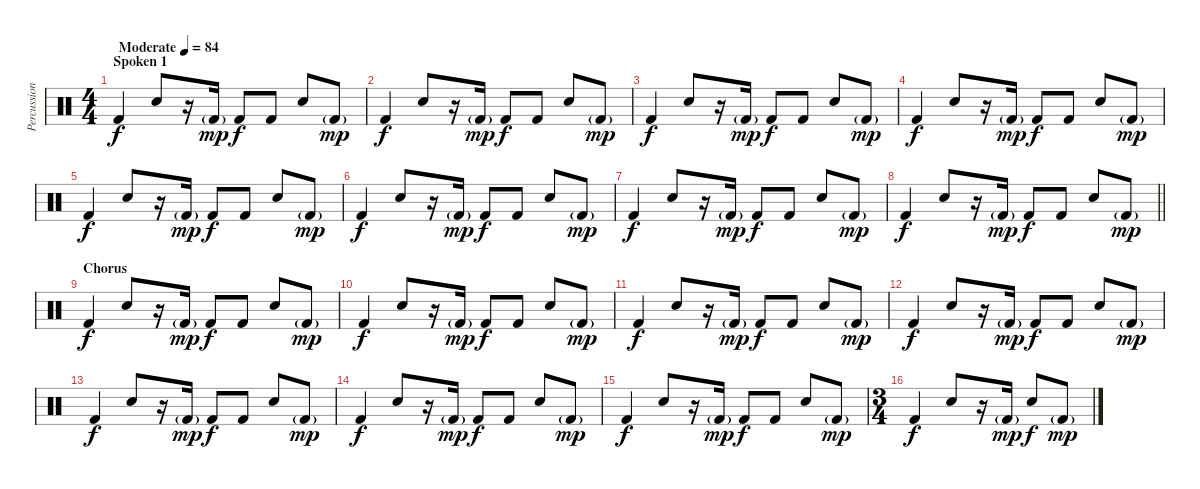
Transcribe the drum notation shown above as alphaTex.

\track ("Percussion" "Percussion") {instrument percussion}
\staff {score}
\articulation defaults
\ts (4 4)
\section ("" "Spoken 1")
\tempo (84 "Moderate")
\clef neutral
\ks c "Kick (hit) 2".4{dy f} "Snare (hit) 2".8
r.16 "Kick (hit) 2"{g}.16{dy mp} "Kick (hit) 2".8{dy f} "Kick (hit) 2".8 "Snare (hit) 2".8 "Kick (hit) 2"{g}.8{dy mp} |
"Kick (hit) 2".4{dy f} "Snare (hit) 2".8 r.16 "Kick (hit) 2"{g}.16{dy mp} "Kick (hit) 2".8{dy f} "Kick (hit) 2".8 "Snare (hit) 2".8 "Kick (hit) 2"{g}.8{dy mp} |
"Kick (hit) 2".4{dy f} "Snare (hit) 2".8 r.16 "Kick (hit) 2"{g}.16{dy mp} "Kick (hit) 2".8{dy f} "Kick (hit) 2".8 "Snare (hit) 2".8 "Kick (hit) 2"{g}.8{dy mp} |
"Kick (hit) 2".4{dy f} "Snare (hit) 2".8 r.16 "Kick (hit) 2"{g}.16{dy mp} "Kick (hit) 2".8{dy f} "Kick (hit) 2".8 "Snare (hit) 2".8 "Kick (hit) 2"{g}.8{dy mp} |
"Kick (hit) 2".4{dy f} "Snare (hit) 2".8 r.16 "Kick (hit) 2"{g}.16{dy mp} "Kick (hit) 2".8{dy f} "Kick (hit) 2".8 "Snare (hit) 2".8 "Kick (hit) 2"{g}.8{dy mp} |
"Kick (hit) 2".4{dy f} "Snare (hit) 2".8 r.16 "Kick (hit) 2"{g}.16{dy mp} "Kick (hit) 2".8{dy f} "Kick (hit) 2".8 "Snare (hit) 2".8 "Kick (hit) 2"{g}.8{dy mp} |
"Kick (hit) 2".4{dy f} "Snare (hit) 2".8 r.16 "Kick (hit) 2"{g}.16{dy mp} "Kick (hit) 2".8{dy f} "Kick (hit) 2".8 "Snare (hit) 2".8 "Kick (hit) 2"{g}.8{dy mp} |
\barLineRight lightlight "Kick (hit) 2".4{dy f} "Snare (hit) 2".8
r.16 "Kick (hit) 2"{g}.16{dy mp} "Kick (hit) 2".8{dy f} "Kick (hit) 2".8 "Snare (hit) 2".8 "Kick (hit) 2"{g}.8{dy mp} |
\section ("" "Chorus")
"Kick (hit) 2".4{dy f} "Snare (hit) 2".8 r.16 "Kick (hit) 2"{g}.16{dy mp} "Kick (hit) 2".8{dy f} "Kick (hit) 2".8 "Snare (hit) 2".8 "Kick (hit) 2"{g}.8{dy mp} |
"Kick (hit) 2".4{dy f} "Snare (hit) 2".8 r.16 "Kick (hit) 2"{g}.16{dy mp} "Kick (hit) 2".8{dy f} "Kick (hit) 2".8 "Snare (hit) 2".8 "Kick (hit) 2"{g}.8{dy mp} |
"Kick (hit) 2".4{dy f} "Snare (hit) 2".8 r.16 "Kick (hit) 2"{g}.16{dy mp} "Kick (hit) 2".8{dy f} "Kick (hit) 2".8 "Snare (hit) 2".8 "Kick (hit) 2"{g}.8{dy mp} |
"Kick (hit) 2".4{dy f} "Snare (hit) 2".8 r.16 "Kick (hit) 2"{g}.16{dy mp} "Kick (hit) 2".8{dy f} "Kick (hit) 2".8 "Snare (hit) 2".8 "Kick (hit) 2"{g}.8{dy mp} |
"Kick (hit) 2".4{dy f} "Snare (hit) 2".8 r.16 "Kick (hit) 2"{g}.16{dy mp} "Kick (hit) 2".8{dy f} "Kick (hit) 2".8 "Snare (hit) 2".8 "Kick (hit) 2"{g}.8{dy mp} |
"Kick (hit) 2".4{dy f} "Snare (hit) 2".8 r.16 "Kick (hit) 2"{g}.16{dy mp} "Kick (hit) 2".8{dy f} "Kick (hit) 2".8 "Snare (hit) 2".8 "Kick (hit) 2"{g}.8{dy mp} |
"Kick (hit) 2".4{dy f} "Snare (hit) 2".8 r.16 "Kick (hit) 2"{g}.16{dy mp} "Kick (hit) 2".8{dy f} "Kick (hit) 2".8 "Snare (hit) 2".8 "Kick (hit) 2"{g}.8{dy mp} |
\ts (3 4)
"Kick (hit) 2".4{dy f} "Snare (hit) 2".8 r.16 "Kick (hit) 2"{g}.16{dy mp} "Snare (hit) 2".8{dy f} "Kick (hit) 2"{g}.8{dy mp}
